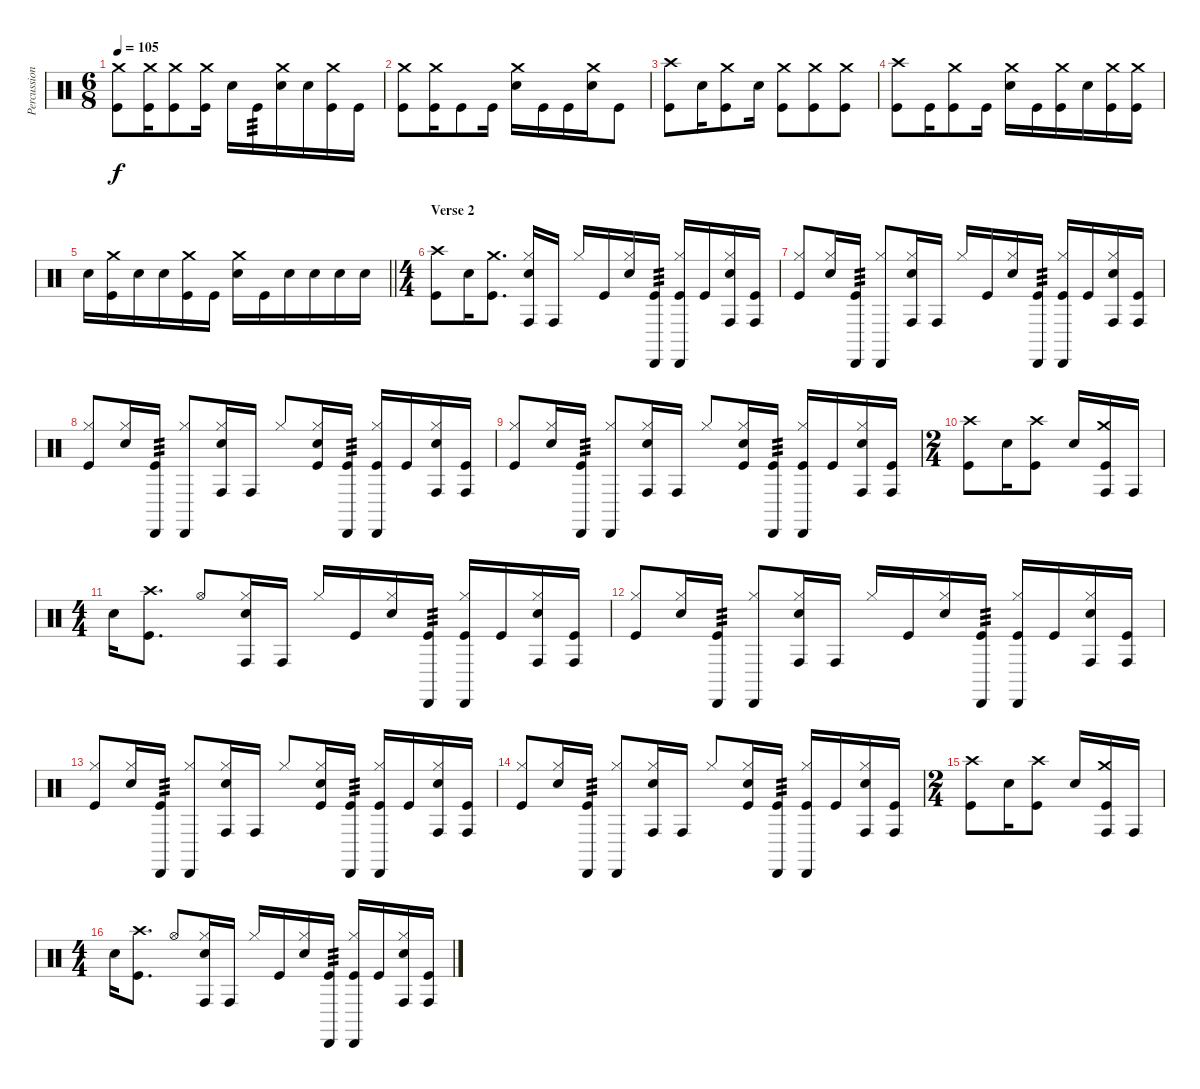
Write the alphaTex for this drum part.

\track ("Percussion" "Percussion") {instrument percussion}
\staff {score}
\articulation defaults
\ts (6 8)
\tempo 105
\clef neutral
\ks c
("Crash medium (hit)" "Kick (hit)").8{dy f} ("Crash medium (hit)" "Kick (hit)").16 ("Crash medium (hit)" "Kick (hit)").8 ("Crash medium (hit)" "Kick (hit)").16 "Snare (hit) 2".16 "Kick (hit)".16{tp 3} ("Crash medium (hit)" "Snare (hit) 2").16 "Snare (hit) 2".16 ("Crash medium (hit)" "Kick (hit)").16 "Kick (hit)".16 |
("Crash medium (hit)" "Kick (hit)").8 ("Crash medium (hit)" "Kick (hit)").16 "Kick (hit)".8 "Kick (hit)".16 ("Crash medium (hit)" "Snare (hit) 2").16 "Kick (hit)".16 "Kick (hit)".16 ("Crash medium (hit)" "Snare (hit) 2").16 "Kick (hit)".8 |
("Crash high (hit)" "Kick (hit)").8 "Snare (hit) 2".16 ("Crash medium (hit)" "Kick (hit)").8 "Snare (hit) 2".16 ("Crash medium (hit)" "Kick (hit)").8 ("Crash medium (hit)" "Kick (hit)").8 ("Crash medium (hit)" "Kick (hit)").8 |
("Crash high (hit)" "Kick (hit)").8 "Kick (hit)".16 ("Crash medium (hit)" "Kick (hit)").8 "Kick (hit)".16 ("Crash medium (hit)" "Snare (hit) 2").16 "Kick (hit)".16 ("Crash medium (hit)" "Kick (hit)").16 "Snare (hit) 2".16 ("Crash medium (hit)" "Kick (hit)").16 ("Crash medium (hit)" "Kick (hit)").16 |
\barLineRight lightlight "Snare (hit) 2".16
("Crash medium (hit)" "Kick (hit)").16 "Snare (hit) 2".16 "Snare (hit) 2".16 ("Crash medium (hit)" "Kick (hit)").16 "Kick (hit)".16 ("Crash medium (hit)" "Snare (hit) 2").16 "Kick (hit)".16 "Snare (hit) 2".16 "Snare (hit) 2".16 "Snare (hit) 2".16 "Snare (hit) 2".16 |
\ts (4 4)
\section ("" "Verse 2")
("Crash high (hit)" "Kick (hit)").8 "Snare (hit) 2".16 ("Crash medium (hit)" "Kick (hit)").8{d} ("Hi-Hat (closed)" "Snare (hit) 2" "Conga high (hit)").16 "Conga high (hit)".16 "Hi-Hat (closed)".16 "Kick (hit)".16 ("Hi-Hat (closed)" "Snare (hit) 2").16 ("Cabasa (hit)" "Kick (hit)").16{tp 3} ("Hi-Hat (closed)" "Cabasa (hit)" "Kick (hit)").16 "Kick (hit)".16 ("Hi-Hat (closed)" "Snare (hit) 2" "Conga high (hit)").16 ("Conga high (hit)" "Kick (hit)").16 |
("Hi-Hat (closed)" "Kick (hit)").8 ("Hi-Hat (closed)" "Snare (hit) 2").16 ("Cabasa (hit)" "Kick (hit)").16{tp 3} ("Hi-Hat (closed)" "Cabasa (hit)").8 ("Hi-Hat (closed)" "Snare (hit) 2" "Conga high (hit)").16 "Conga high (hit)".16 "Hi-Hat (closed)".16 "Kick (hit)".16 ("Hi-Hat (closed)" "Snare (hit) 2").16 ("Cabasa (hit)" "Kick (hit)").16{tp 3} ("Hi-Hat (closed)" "Cabasa (hit)" "Kick (hit)").16 "Kick (hit)".16 ("Hi-Hat (closed)" "Snare (hit) 2" "Conga high (hit)").16 ("Conga high (hit)" "Kick (hit)").16 |
("Hi-Hat (closed)" "Kick (hit)").8 ("Hi-Hat (closed)" "Snare (hit) 2").16 ("Cabasa (hit)" "Kick (hit)").16{tp 3} ("Hi-Hat (closed)" "Cabasa (hit)").8 ("Hi-Hat (closed)" "Snare (hit) 2" "Conga high (hit)").16 "Conga high (hit)".16 "Hi-Hat (closed)".8 ("Hi-Hat (closed)" "Snare (hit) 2" "Kick (hit)").16 ("Cabasa (hit)" "Kick (hit)").16{tp 3} ("Hi-Hat (closed)" "Cabasa (hit)" "Kick (hit)").16 "Kick (hit)".16 ("Hi-Hat (closed)" "Snare (hit) 2" "Conga high (hit)").16 ("Conga high (hit)" "Kick (hit)").16 |
("Hi-Hat (closed)" "Kick (hit)").8 ("Hi-Hat (closed)" "Snare (hit) 2").16 ("Cabasa (hit)" "Kick (hit)").16{tp 3} ("Hi-Hat (closed)" "Cabasa (hit)").8 ("Hi-Hat (closed)" "Snare (hit) 2" "Conga high (hit)").16 "Conga high (hit)".16 "Hi-Hat (closed)".8 ("Hi-Hat (closed)" "Snare (hit) 2" "Kick (hit)").16 ("Cabasa (hit)" "Kick (hit)").16{tp 3} ("Hi-Hat (closed)" "Cabasa (hit)" "Kick (hit)").16 "Kick (hit)".16 ("Hi-Hat (closed)" "Snare (hit) 2" "Conga high (hit)").16 ("Conga high (hit)" "Kick (hit)").16 |
\ts (2 4)
("Crash high (hit)" "Kick (hit)").8 "Snare (hit) 2".16 ("Crash high (hit)" "Kick (hit)").8 "Snare (hit) 2".16 ("Crash medium (hit)" "Conga high (hit)" "Kick (hit)").16 "Conga high (hit)".16 |
\ts (4 4)
"Snare (hit) 2".16 ("Crash high (hit)" "Kick (hit)").8{d} "Hi-Hat (open)".8 ("Hi-Hat (closed)" "Snare (hit) 2" "Conga high (hit)").16 "Conga high (hit)".16 "Hi-Hat (closed)".16 "Kick (hit)".16 ("Hi-Hat (closed)" "Snare (hit) 2").16 ("Cabasa (hit)" "Kick (hit)").16{tp 3} ("Hi-Hat (closed)" "Cabasa (hit)" "Kick (hit)").16 "Kick (hit)".16 ("Hi-Hat (closed)" "Snare (hit) 2" "Conga high (hit)").16 ("Conga high (hit)" "Kick (hit)").16 |
("Hi-Hat (closed)" "Kick (hit)").8 ("Hi-Hat (closed)" "Snare (hit) 2").16 ("Cabasa (hit)" "Kick (hit)").16{tp 3} ("Hi-Hat (closed)" "Cabasa (hit)").8 ("Hi-Hat (closed)" "Snare (hit) 2" "Conga high (hit)").16 "Conga high (hit)".16 "Hi-Hat (closed)".16 "Kick (hit)".16 ("Hi-Hat (closed)" "Snare (hit) 2").16 ("Cabasa (hit)" "Kick (hit)").16{tp 3} ("Hi-Hat (closed)" "Cabasa (hit)" "Kick (hit)").16 "Kick (hit)".16 ("Hi-Hat (closed)" "Snare (hit) 2" "Conga high (hit)").16 ("Conga high (hit)" "Kick (hit)").16 |
("Hi-Hat (closed)" "Kick (hit)").8 ("Hi-Hat (closed)" "Snare (hit) 2").16 ("Cabasa (hit)" "Kick (hit)").16{tp 3} ("Hi-Hat (closed)" "Cabasa (hit)").8 ("Hi-Hat (closed)" "Snare (hit) 2" "Conga high (hit)").16 "Conga high (hit)".16 "Hi-Hat (closed)".8 ("Hi-Hat (closed)" "Snare (hit) 2" "Kick (hit)").16 ("Cabasa (hit)" "Kick (hit)").16{tp 3} ("Hi-Hat (closed)" "Cabasa (hit)" "Kick (hit)").16 "Kick (hit)".16 ("Hi-Hat (closed)" "Snare (hit) 2" "Conga high (hit)").16 ("Conga high (hit)" "Kick (hit)").16 |
("Hi-Hat (closed)" "Kick (hit)").8 ("Hi-Hat (closed)" "Snare (hit) 2").16 ("Cabasa (hit)" "Kick (hit)").16{tp 3} ("Hi-Hat (closed)" "Cabasa (hit)").8 ("Hi-Hat (closed)" "Snare (hit) 2" "Conga high (hit)").16 "Conga high (hit)".16 "Hi-Hat (closed)".8 ("Hi-Hat (closed)" "Snare (hit) 2" "Kick (hit)").16 ("Cabasa (hit)" "Kick (hit)").16{tp 3} ("Hi-Hat (closed)" "Cabasa (hit)" "Kick (hit)").16 "Kick (hit)".16 ("Hi-Hat (closed)" "Snare (hit) 2" "Conga high (hit)").16 ("Conga high (hit)" "Kick (hit)").16 |
\ts (2 4)
("Crash high (hit)" "Kick (hit)").8 "Snare (hit) 2".16 ("Crash high (hit)" "Kick (hit)").8 "Snare (hit) 2".16 ("Crash medium (hit)" "Conga high (hit)" "Kick (hit)").16 "Conga high (hit)".16 |
\ts (4 4)
"Snare (hit) 2".16 ("Crash high (hit)" "Kick (hit)").8{d} "Hi-Hat (open)".8 ("Hi-Hat (closed)" "Snare (hit) 2" "Conga high (hit)").16 "Conga high (hit)".16 "Hi-Hat (closed)".16 "Kick (hit)".16 ("Hi-Hat (closed)" "Snare (hit) 2").16 ("Cabasa (hit)" "Kick (hit)").16{tp 3} ("Hi-Hat (closed)" "Cabasa (hit)" "Kick (hit)").16 "Kick (hit)".16 ("Hi-Hat (closed)" "Snare (hit) 2" "Conga high (hit)").16 ("Conga high (hit)" "Kick (hit)").16
